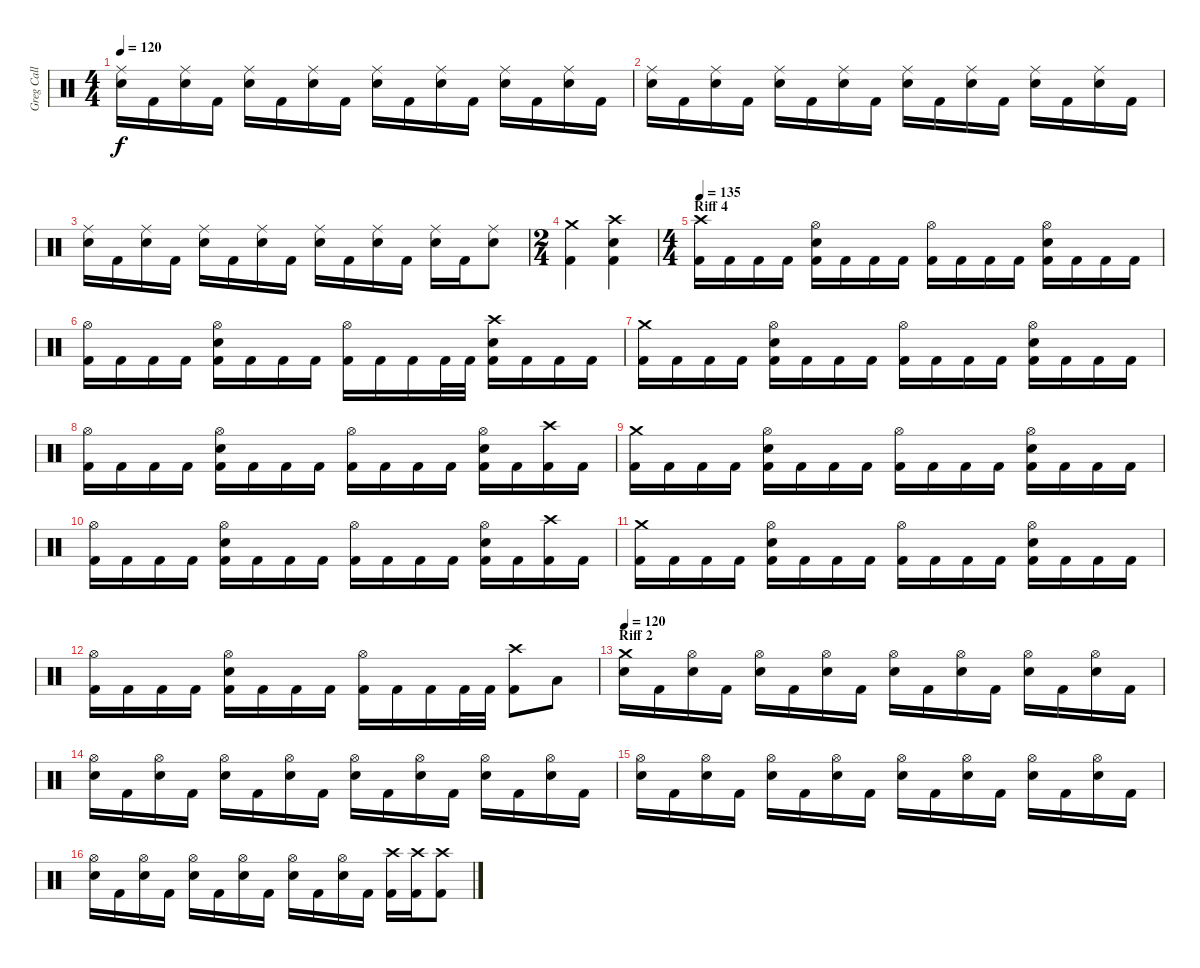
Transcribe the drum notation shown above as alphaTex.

\track ("Greg Call (Drums)" "Greg Call ") {instrument percussion}
\staff {score}
\articulation defaults
\ts (4 4)
\tempo 120
\clef neutral
\ks c
("Ride (middle)" "Snare (hit) 2").16{dy f} "Kick (hit) 2".16 ("Ride (middle)" "Snare (hit) 2").16 "Kick (hit) 2".16 ("Ride (middle)" "Snare (hit) 2").16 "Kick (hit) 2".16 ("Ride (middle)" "Snare (hit) 2").16 "Kick (hit) 2".16 ("Ride (middle)" "Snare (hit) 2").16 "Kick (hit) 2".16 ("Ride (middle)" "Snare (hit) 2").16 "Kick (hit) 2".16 ("Ride (middle)" "Snare (hit) 2").16 "Kick (hit) 2".16 ("Ride (middle)" "Snare (hit) 2").16 "Kick (hit) 2".16 |
("Ride (middle)" "Snare (hit) 2").16 "Kick (hit) 2".16 ("Ride (middle)" "Snare (hit) 2").16 "Kick (hit) 2".16 ("Ride (middle)" "Snare (hit) 2").16 "Kick (hit) 2".16 ("Ride (middle)" "Snare (hit) 2").16 "Kick (hit) 2".16 ("Ride (middle)" "Snare (hit) 2").16 "Kick (hit) 2".16 ("Ride (middle)" "Snare (hit) 2").16 "Kick (hit) 2".16 ("Ride (middle)" "Snare (hit) 2").16 "Kick (hit) 2".16 ("Ride (middle)" "Snare (hit) 2").16 "Kick (hit) 2".16 |
("Ride (middle)" "Snare (hit) 2").16 "Kick (hit) 2".16 ("Ride (middle)" "Snare (hit) 2").16 "Kick (hit) 2".16 ("Ride (middle)" "Snare (hit) 2").16 "Kick (hit) 2".16 ("Ride (middle)" "Snare (hit) 2").16 "Kick (hit) 2".16 ("Ride (middle)" "Snare (hit) 2").16 "Kick (hit) 2".16 ("Ride (middle)" "Snare (hit) 2").16 "Kick (hit) 2".16 ("Ride (middle)" "Snare (hit) 2").16 "Kick (hit) 2".16 ("Ride (middle)" "Snare (hit) 2").8 |
\ts (2 4)
("Crash medium (hit)" "Kick (hit) 2").4 ("Snare (hit) 2" "Crash high (hit)" "Kick (hit) 2").4 |
\ts (4 4)
\section ("" "Riff 4")
\tempo 135
("Crash high (hit)" "Kick (hit) 2").16 "Kick (hit) 2".16 "Kick (hit) 2".16 "Kick (hit) 2".16 ("Hi-Hat (open)" "Snare (hit) 2" "Kick (hit) 2").16 "Kick (hit) 2".16 "Kick (hit) 2".16 "Kick (hit) 2".16 ("Hi-Hat (open)" "Kick (hit) 2").16 "Kick (hit) 2".16 "Kick (hit) 2".16 "Kick (hit) 2".16 ("Hi-Hat (open)" "Snare (hit) 2" "Kick (hit) 2").16 "Kick (hit) 2".16 "Kick (hit) 2".16 "Kick (hit) 2".16 |
("Hi-Hat (open)" "Kick (hit) 2").16 "Kick (hit) 2".16 "Kick (hit) 2".16 "Kick (hit) 2".16 ("Hi-Hat (open)" "Snare (hit) 2" "Kick (hit) 2").16 "Kick (hit) 2".16 "Kick (hit) 2".16 "Kick (hit) 2".16 ("Hi-Hat (open)" "Kick (hit) 2").16 "Kick (hit) 2".16 "Kick (hit) 2".16 "Kick (hit) 2".32 "Kick (hit) 2".32 ("Crash high (hit)" "Kick (hit) 2" "Snare (hit) 2").16 "Kick (hit) 2".16 "Kick (hit) 2".16 "Kick (hit) 2".16 |
("Crash medium (hit)" "Kick (hit) 2").16 "Kick (hit) 2".16 "Kick (hit) 2".16 "Kick (hit) 2".16 ("Hi-Hat (open)" "Snare (hit) 2" "Kick (hit) 2").16 "Kick (hit) 2".16 "Kick (hit) 2".16 "Kick (hit) 2".16 ("Hi-Hat (open)" "Kick (hit) 2").16 "Kick (hit) 2".16 "Kick (hit) 2".16 "Kick (hit) 2".16 ("Hi-Hat (open)" "Snare (hit) 2" "Kick (hit) 2").16 "Kick (hit) 2".16 "Kick (hit) 2".16 "Kick (hit) 2".16 |
("Hi-Hat (open)" "Kick (hit) 2").16 "Kick (hit) 2".16 "Kick (hit) 2".16 "Kick (hit) 2".16 ("Hi-Hat (open)" "Snare (hit) 2" "Kick (hit) 2").16 "Kick (hit) 2".16 "Kick (hit) 2".16 "Kick (hit) 2".16 ("Hi-Hat (open)" "Kick (hit) 2").16 "Kick (hit) 2".16 "Kick (hit) 2".16 "Kick (hit) 2".16 ("Hi-Hat (open)" "Snare (hit) 2" "Kick (hit) 2").16 "Kick (hit) 2".16 ("Crash high (hit)" "Kick (hit) 2").16 "Kick (hit) 2".16 |
("Crash medium (hit)" "Kick (hit) 2").16 "Kick (hit) 2".16 "Kick (hit) 2".16 "Kick (hit) 2".16 ("Hi-Hat (open)" "Snare (hit) 2" "Kick (hit) 2").16 "Kick (hit) 2".16 "Kick (hit) 2".16 "Kick (hit) 2".16 ("Hi-Hat (open)" "Kick (hit) 2").16 "Kick (hit) 2".16 "Kick (hit) 2".16 "Kick (hit) 2".16 ("Hi-Hat (open)" "Snare (hit) 2" "Kick (hit) 2").16 "Kick (hit) 2".16 "Kick (hit) 2".16 "Kick (hit) 2".16 |
("Hi-Hat (open)" "Kick (hit) 2").16 "Kick (hit) 2".16 "Kick (hit) 2".16 "Kick (hit) 2".16 ("Hi-Hat (open)" "Snare (hit) 2" "Kick (hit) 2").16 "Kick (hit) 2".16 "Kick (hit) 2".16 "Kick (hit) 2".16 ("Hi-Hat (open)" "Kick (hit) 2").16 "Kick (hit) 2".16 "Kick (hit) 2".16 "Kick (hit) 2".16 ("Hi-Hat (open)" "Snare (hit) 2" "Kick (hit) 2").16 "Kick (hit) 2".16 ("Crash high (hit)" "Kick (hit) 2").16 "Kick (hit) 2".16 |
("Crash medium (hit)" "Kick (hit) 2").16 "Kick (hit) 2".16 "Kick (hit) 2".16 "Kick (hit) 2".16 ("Hi-Hat (open)" "Snare (hit) 2" "Kick (hit) 2").16 "Kick (hit) 2".16 "Kick (hit) 2".16 "Kick (hit) 2".16 ("Hi-Hat (open)" "Kick (hit) 2").16 "Kick (hit) 2".16 "Kick (hit) 2".16 "Kick (hit) 2".16 ("Hi-Hat (open)" "Snare (hit) 2" "Kick (hit) 2").16 "Kick (hit) 2".16 "Kick (hit) 2".16 "Kick (hit) 2".16 |
("Hi-Hat (open)" "Kick (hit) 2").16 "Kick (hit) 2".16 "Kick (hit) 2".16 "Kick (hit) 2".16 ("Hi-Hat (open)" "Snare (hit) 2" "Kick (hit) 2").16 "Kick (hit) 2".16 "Kick (hit) 2".16 "Kick (hit) 2".16 ("Hi-Hat (open)" "Kick (hit) 2").16 "Kick (hit) 2".16 "Kick (hit) 2".16 "Kick (hit) 2".32 "Kick (hit) 2".32 ("Crash high (hit)" "Kick (hit) 2").8 "Low Tom (hit)".8 |
\section ("" "Riff 2")
\tempo 120
("Crash medium (hit)" "Snare (hit) 2").16 "Kick (hit) 2".16 ("Hi-Hat (open)" "Snare (hit) 2").16 "Kick (hit) 2".16 ("Hi-Hat (open)" "Snare (hit) 2").16 "Kick (hit) 2".16 ("Hi-Hat (open)" "Snare (hit) 2").16 "Kick (hit) 2".16 ("Hi-Hat (open)" "Snare (hit) 2").16 "Kick (hit) 2".16 ("Hi-Hat (open)" "Snare (hit) 2").16 "Kick (hit) 2".16 ("Hi-Hat (open)" "Snare (hit) 2").16 "Kick (hit) 2".16 ("Hi-Hat (open)" "Snare (hit) 2").16 "Kick (hit) 2".16 |
("Hi-Hat (open)" "Snare (hit) 2").16 "Kick (hit) 2".16 ("Hi-Hat (open)" "Snare (hit) 2").16 "Kick (hit) 2".16 ("Hi-Hat (open)" "Snare (hit) 2").16 "Kick (hit) 2".16 ("Hi-Hat (open)" "Snare (hit) 2").16 "Kick (hit) 2".16 ("Hi-Hat (open)" "Snare (hit) 2").16 "Kick (hit) 2".16 ("Hi-Hat (open)" "Snare (hit) 2").16 "Kick (hit) 2".16 ("Hi-Hat (open)" "Snare (hit) 2").16 "Kick (hit) 2".16 ("Hi-Hat (open)" "Snare (hit) 2").16 "Kick (hit) 2".16 |
("Hi-Hat (open)" "Snare (hit) 2").16 "Kick (hit) 2".16 ("Hi-Hat (open)" "Snare (hit) 2").16 "Kick (hit) 2".16 ("Hi-Hat (open)" "Snare (hit) 2").16 "Kick (hit) 2".16 ("Hi-Hat (open)" "Snare (hit) 2").16 "Kick (hit) 2".16 ("Hi-Hat (open)" "Snare (hit) 2").16 "Kick (hit) 2".16 ("Hi-Hat (open)" "Snare (hit) 2").16 "Kick (hit) 2".16 ("Hi-Hat (open)" "Snare (hit) 2").16 "Kick (hit) 2".16 ("Hi-Hat (open)" "Snare (hit) 2").16 "Kick (hit) 2".16 |
("Hi-Hat (open)" "Snare (hit) 2").16 "Kick (hit) 2".16 ("Hi-Hat (open)" "Snare (hit) 2").16 "Kick (hit) 2".16 ("Hi-Hat (open)" "Snare (hit) 2").16 "Kick (hit) 2".16 ("Hi-Hat (open)" "Snare (hit) 2").16 "Kick (hit) 2".16 ("Hi-Hat (open)" "Snare (hit) 2").16 "Kick (hit) 2".16 ("Snare (hit) 2" "Hi-Hat (open)").16 "Kick (hit) 2".16 ("Crash high (hit)" "Kick (hit) 2").16 ("Crash high (hit)" "Kick (hit) 2").16 ("Crash high (hit)" "Kick (hit) 2").8
